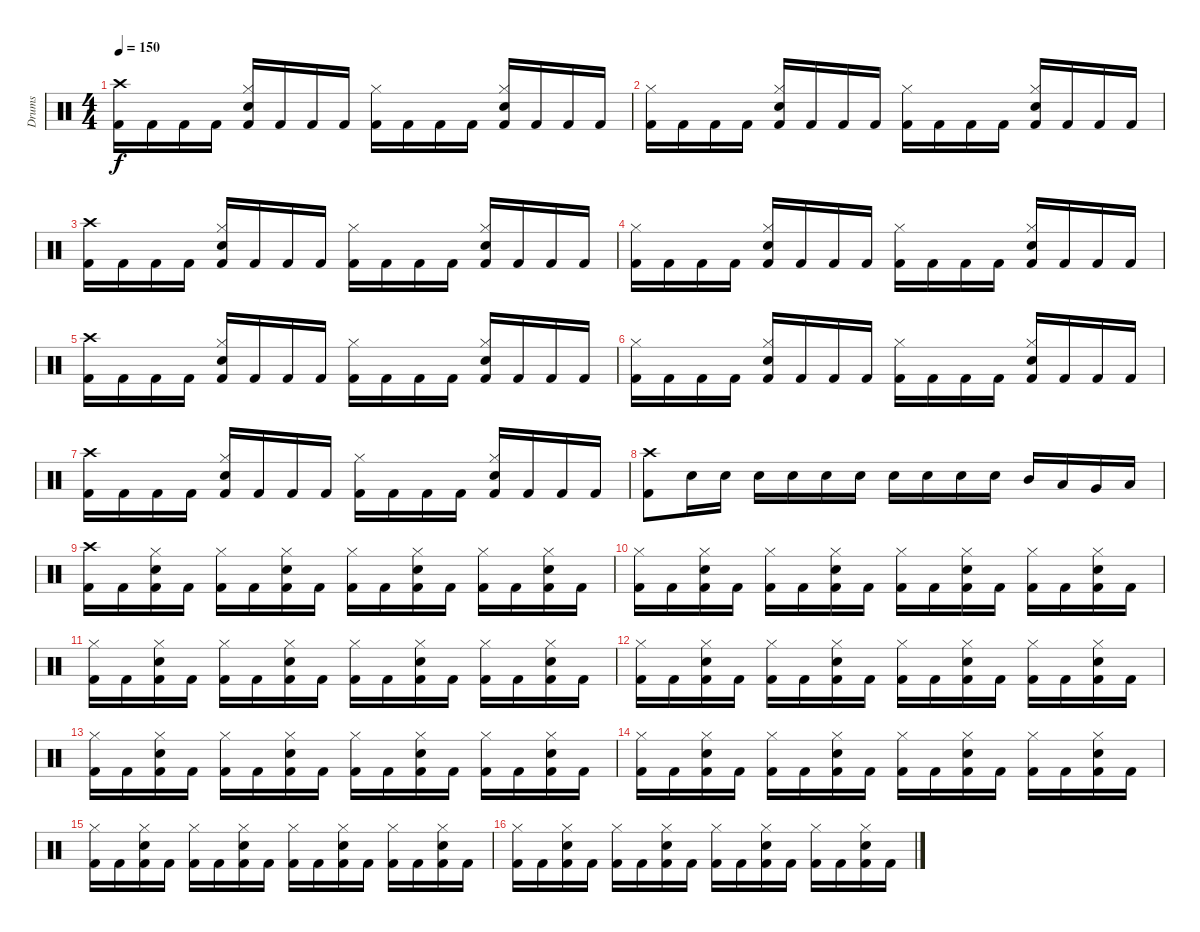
\track ("Drums" "Drums") {instrument percussion}
\staff {score}
\articulation defaults
\ts (4 4)
\tempo 150
\clef neutral
\ks c
("Crash high (hit)" "Kick (hit) 2").16{dy f} "Kick (hit) 2".16 "Kick (hit) 2".16 "Kick (hit) 2".16 ("Hi-Hat (closed)" "Electric Snare (hit)" "Kick (hit) 2").16 "Kick (hit) 2".16 "Kick (hit) 2".16 "Kick (hit) 2".16 ("Hi-Hat (closed)" "Kick (hit) 2").16 "Kick (hit) 2".16 "Kick (hit) 2".16 "Kick (hit) 2".16 ("Hi-Hat (closed)" "Electric Snare (hit)" "Kick (hit) 2").16 "Kick (hit) 2".16 "Kick (hit) 2".16 "Kick (hit) 2".16 |
("Hi-Hat (closed)" "Kick (hit) 2").16 "Kick (hit) 2".16 "Kick (hit) 2".16 "Kick (hit) 2".16 ("Hi-Hat (closed)" "Electric Snare (hit)" "Kick (hit) 2").16 "Kick (hit) 2".16 "Kick (hit) 2".16 "Kick (hit) 2".16 ("Hi-Hat (closed)" "Kick (hit) 2").16 "Kick (hit) 2".16 "Kick (hit) 2".16 "Kick (hit) 2".16 ("Hi-Hat (closed)" "Electric Snare (hit)" "Kick (hit) 2").16 "Kick (hit) 2".16 "Kick (hit) 2".16 "Kick (hit) 2".16 |
("Crash high (hit)" "Kick (hit) 2").16 "Kick (hit) 2".16 "Kick (hit) 2".16 "Kick (hit) 2".16 ("Hi-Hat (closed)" "Electric Snare (hit)" "Kick (hit) 2").16 "Kick (hit) 2".16 "Kick (hit) 2".16 "Kick (hit) 2".16 ("Hi-Hat (closed)" "Kick (hit) 2").16 "Kick (hit) 2".16 "Kick (hit) 2".16 "Kick (hit) 2".16 ("Hi-Hat (closed)" "Electric Snare (hit)" "Kick (hit) 2").16 "Kick (hit) 2".16 "Kick (hit) 2".16 "Kick (hit) 2".16 |
("Hi-Hat (closed)" "Kick (hit) 2").16 "Kick (hit) 2".16 "Kick (hit) 2".16 "Kick (hit) 2".16 ("Hi-Hat (closed)" "Electric Snare (hit)" "Kick (hit) 2").16 "Kick (hit) 2".16 "Kick (hit) 2".16 "Kick (hit) 2".16 ("Hi-Hat (closed)" "Kick (hit) 2").16 "Kick (hit) 2".16 "Kick (hit) 2".16 "Kick (hit) 2".16 ("Hi-Hat (closed)" "Electric Snare (hit)" "Kick (hit) 2").16 "Kick (hit) 2".16 "Kick (hit) 2".16 "Kick (hit) 2".16 |
("Crash high (hit)" "Kick (hit) 2").16 "Kick (hit) 2".16 "Kick (hit) 2".16 "Kick (hit) 2".16 ("Hi-Hat (closed)" "Electric Snare (hit)" "Kick (hit) 2").16 "Kick (hit) 2".16 "Kick (hit) 2".16 "Kick (hit) 2".16 ("Hi-Hat (closed)" "Kick (hit) 2").16 "Kick (hit) 2".16 "Kick (hit) 2".16 "Kick (hit) 2".16 ("Hi-Hat (closed)" "Electric Snare (hit)" "Kick (hit) 2").16 "Kick (hit) 2".16 "Kick (hit) 2".16 "Kick (hit) 2".16 |
("Hi-Hat (closed)" "Kick (hit) 2").16 "Kick (hit) 2".16 "Kick (hit) 2".16 "Kick (hit) 2".16 ("Hi-Hat (closed)" "Electric Snare (hit)" "Kick (hit) 2").16 "Kick (hit) 2".16 "Kick (hit) 2".16 "Kick (hit) 2".16 ("Hi-Hat (closed)" "Kick (hit) 2").16 "Kick (hit) 2".16 "Kick (hit) 2".16 "Kick (hit) 2".16 ("Hi-Hat (closed)" "Electric Snare (hit)" "Kick (hit) 2").16 "Kick (hit) 2".16 "Kick (hit) 2".16 "Kick (hit) 2".16 |
("Crash high (hit)" "Kick (hit) 2").16 "Kick (hit) 2".16 "Kick (hit) 2".16 "Kick (hit) 2".16 ("Hi-Hat (closed)" "Electric Snare (hit)" "Kick (hit) 2").16 "Kick (hit) 2".16 "Kick (hit) 2".16 "Kick (hit) 2".16 ("Hi-Hat (closed)" "Kick (hit) 2").16 "Kick (hit) 2".16 "Kick (hit) 2".16 "Kick (hit) 2".16 ("Hi-Hat (closed)" "Electric Snare (hit)" "Kick (hit) 2").16 "Kick (hit) 2".16 "Kick (hit) 2".16 "Kick (hit) 2".16 |
("Crash high (hit)" "Kick (hit) 2").8 "Electric Snare (hit)".16 "Electric Snare (hit)".16 "Electric Snare (hit)".16 "Electric Snare (hit)".16 "Electric Snare (hit)".16 "Electric Snare (hit)".16 "Electric Snare (hit)".16 "Electric Snare (hit)".16 "Electric Snare (hit)".16 "Electric Snare (hit)".16 "Mid Tom (hit)".16 "Low Tom (hit)".16 "Very Low Tom (hit)".16 "Low Floor Tom (hit)".16 |
("Crash high (hit)" "Kick (hit) 2").16 "Kick (hit) 2".16 ("Hi-Hat (closed)" "Electric Snare (hit)" "Kick (hit) 2").16 "Kick (hit) 2".16 ("Hi-Hat (closed)" "Kick (hit) 2").16 "Kick (hit) 2".16 ("Hi-Hat (closed)" "Electric Snare (hit)" "Kick (hit) 2").16 "Kick (hit) 2".16 ("Hi-Hat (closed)" "Kick (hit) 2").16 "Kick (hit) 2".16 ("Hi-Hat (closed)" "Electric Snare (hit)" "Kick (hit) 2").16 "Kick (hit) 2".16 ("Hi-Hat (closed)" "Kick (hit) 2").16 "Kick (hit) 2".16 ("Hi-Hat (closed)" "Electric Snare (hit)" "Kick (hit) 2").16 "Kick (hit) 2".16 |
("Hi-Hat (closed)" "Kick (hit) 2").16 "Kick (hit) 2".16 ("Hi-Hat (closed)" "Electric Snare (hit)" "Kick (hit) 2").16 "Kick (hit) 2".16 ("Hi-Hat (closed)" "Kick (hit) 2").16 "Kick (hit) 2".16 ("Hi-Hat (closed)" "Electric Snare (hit)" "Kick (hit) 2").16 "Kick (hit) 2".16 ("Hi-Hat (closed)" "Kick (hit) 2").16 "Kick (hit) 2".16 ("Hi-Hat (closed)" "Electric Snare (hit)" "Kick (hit) 2").16 "Kick (hit) 2".16 ("Hi-Hat (closed)" "Kick (hit) 2").16 "Kick (hit) 2".16 ("Hi-Hat (closed)" "Electric Snare (hit)" "Kick (hit) 2").16 "Kick (hit) 2".16 |
("Hi-Hat (closed)" "Kick (hit) 2").16 "Kick (hit) 2".16 ("Hi-Hat (closed)" "Electric Snare (hit)" "Kick (hit) 2").16 "Kick (hit) 2".16 ("Hi-Hat (closed)" "Kick (hit) 2").16 "Kick (hit) 2".16 ("Hi-Hat (closed)" "Electric Snare (hit)" "Kick (hit) 2").16 "Kick (hit) 2".16 ("Hi-Hat (closed)" "Kick (hit) 2").16 "Kick (hit) 2".16 ("Hi-Hat (closed)" "Electric Snare (hit)" "Kick (hit) 2").16 "Kick (hit) 2".16 ("Hi-Hat (closed)" "Kick (hit) 2").16 "Kick (hit) 2".16 ("Hi-Hat (closed)" "Electric Snare (hit)" "Kick (hit) 2").16 "Kick (hit) 2".16 |
("Hi-Hat (closed)" "Kick (hit) 2").16 "Kick (hit) 2".16 ("Hi-Hat (closed)" "Electric Snare (hit)" "Kick (hit) 2").16 "Kick (hit) 2".16 ("Hi-Hat (closed)" "Kick (hit) 2").16 "Kick (hit) 2".16 ("Hi-Hat (closed)" "Electric Snare (hit)" "Kick (hit) 2").16 "Kick (hit) 2".16 ("Hi-Hat (closed)" "Kick (hit) 2").16 "Kick (hit) 2".16 ("Hi-Hat (closed)" "Electric Snare (hit)" "Kick (hit) 2").16 "Kick (hit) 2".16 ("Hi-Hat (closed)" "Kick (hit) 2").16 "Kick (hit) 2".16 ("Hi-Hat (closed)" "Electric Snare (hit)" "Kick (hit) 2").16 "Kick (hit) 2".16 |
("Hi-Hat (closed)" "Kick (hit) 2").16 "Kick (hit) 2".16 ("Hi-Hat (closed)" "Electric Snare (hit)" "Kick (hit) 2").16 "Kick (hit) 2".16 ("Hi-Hat (closed)" "Kick (hit) 2").16 "Kick (hit) 2".16 ("Hi-Hat (closed)" "Electric Snare (hit)" "Kick (hit) 2").16 "Kick (hit) 2".16 ("Hi-Hat (closed)" "Kick (hit) 2").16 "Kick (hit) 2".16 ("Hi-Hat (closed)" "Electric Snare (hit)" "Kick (hit) 2").16 "Kick (hit) 2".16 ("Hi-Hat (closed)" "Kick (hit) 2").16 "Kick (hit) 2".16 ("Hi-Hat (closed)" "Electric Snare (hit)" "Kick (hit) 2").16 "Kick (hit) 2".16 |
("Hi-Hat (closed)" "Kick (hit) 2").16 "Kick (hit) 2".16 ("Hi-Hat (closed)" "Electric Snare (hit)" "Kick (hit) 2").16 "Kick (hit) 2".16 ("Hi-Hat (closed)" "Kick (hit) 2").16 "Kick (hit) 2".16 ("Hi-Hat (closed)" "Electric Snare (hit)" "Kick (hit) 2").16 "Kick (hit) 2".16 ("Hi-Hat (closed)" "Kick (hit) 2").16 "Kick (hit) 2".16 ("Hi-Hat (closed)" "Electric Snare (hit)" "Kick (hit) 2").16 "Kick (hit) 2".16 ("Hi-Hat (closed)" "Kick (hit) 2").16 "Kick (hit) 2".16 ("Hi-Hat (closed)" "Electric Snare (hit)" "Kick (hit) 2").16 "Kick (hit) 2".16 |
("Hi-Hat (closed)" "Kick (hit) 2").16 "Kick (hit) 2".16 ("Hi-Hat (closed)" "Electric Snare (hit)" "Kick (hit) 2").16 "Kick (hit) 2".16 ("Hi-Hat (closed)" "Kick (hit) 2").16 "Kick (hit) 2".16 ("Hi-Hat (closed)" "Electric Snare (hit)" "Kick (hit) 2").16 "Kick (hit) 2".16 ("Hi-Hat (closed)" "Kick (hit) 2").16 "Kick (hit) 2".16 ("Hi-Hat (closed)" "Electric Snare (hit)" "Kick (hit) 2").16 "Kick (hit) 2".16 ("Hi-Hat (closed)" "Kick (hit) 2").16 "Kick (hit) 2".16 ("Hi-Hat (closed)" "Electric Snare (hit)" "Kick (hit) 2").16 "Kick (hit) 2".16 |
("Hi-Hat (closed)" "Kick (hit) 2").16 "Kick (hit) 2".16 ("Hi-Hat (closed)" "Electric Snare (hit)" "Kick (hit) 2").16 "Kick (hit) 2".16 ("Hi-Hat (closed)" "Kick (hit) 2").16 "Kick (hit) 2".16 ("Hi-Hat (closed)" "Electric Snare (hit)" "Kick (hit) 2").16 "Kick (hit) 2".16 ("Hi-Hat (closed)" "Kick (hit) 2").16 "Kick (hit) 2".16 ("Hi-Hat (closed)" "Electric Snare (hit)" "Kick (hit) 2").16 "Kick (hit) 2".16 ("Hi-Hat (closed)" "Kick (hit) 2").16 "Kick (hit) 2".16 ("Hi-Hat (closed)" "Electric Snare (hit)" "Kick (hit) 2").16 "Kick (hit) 2".16
